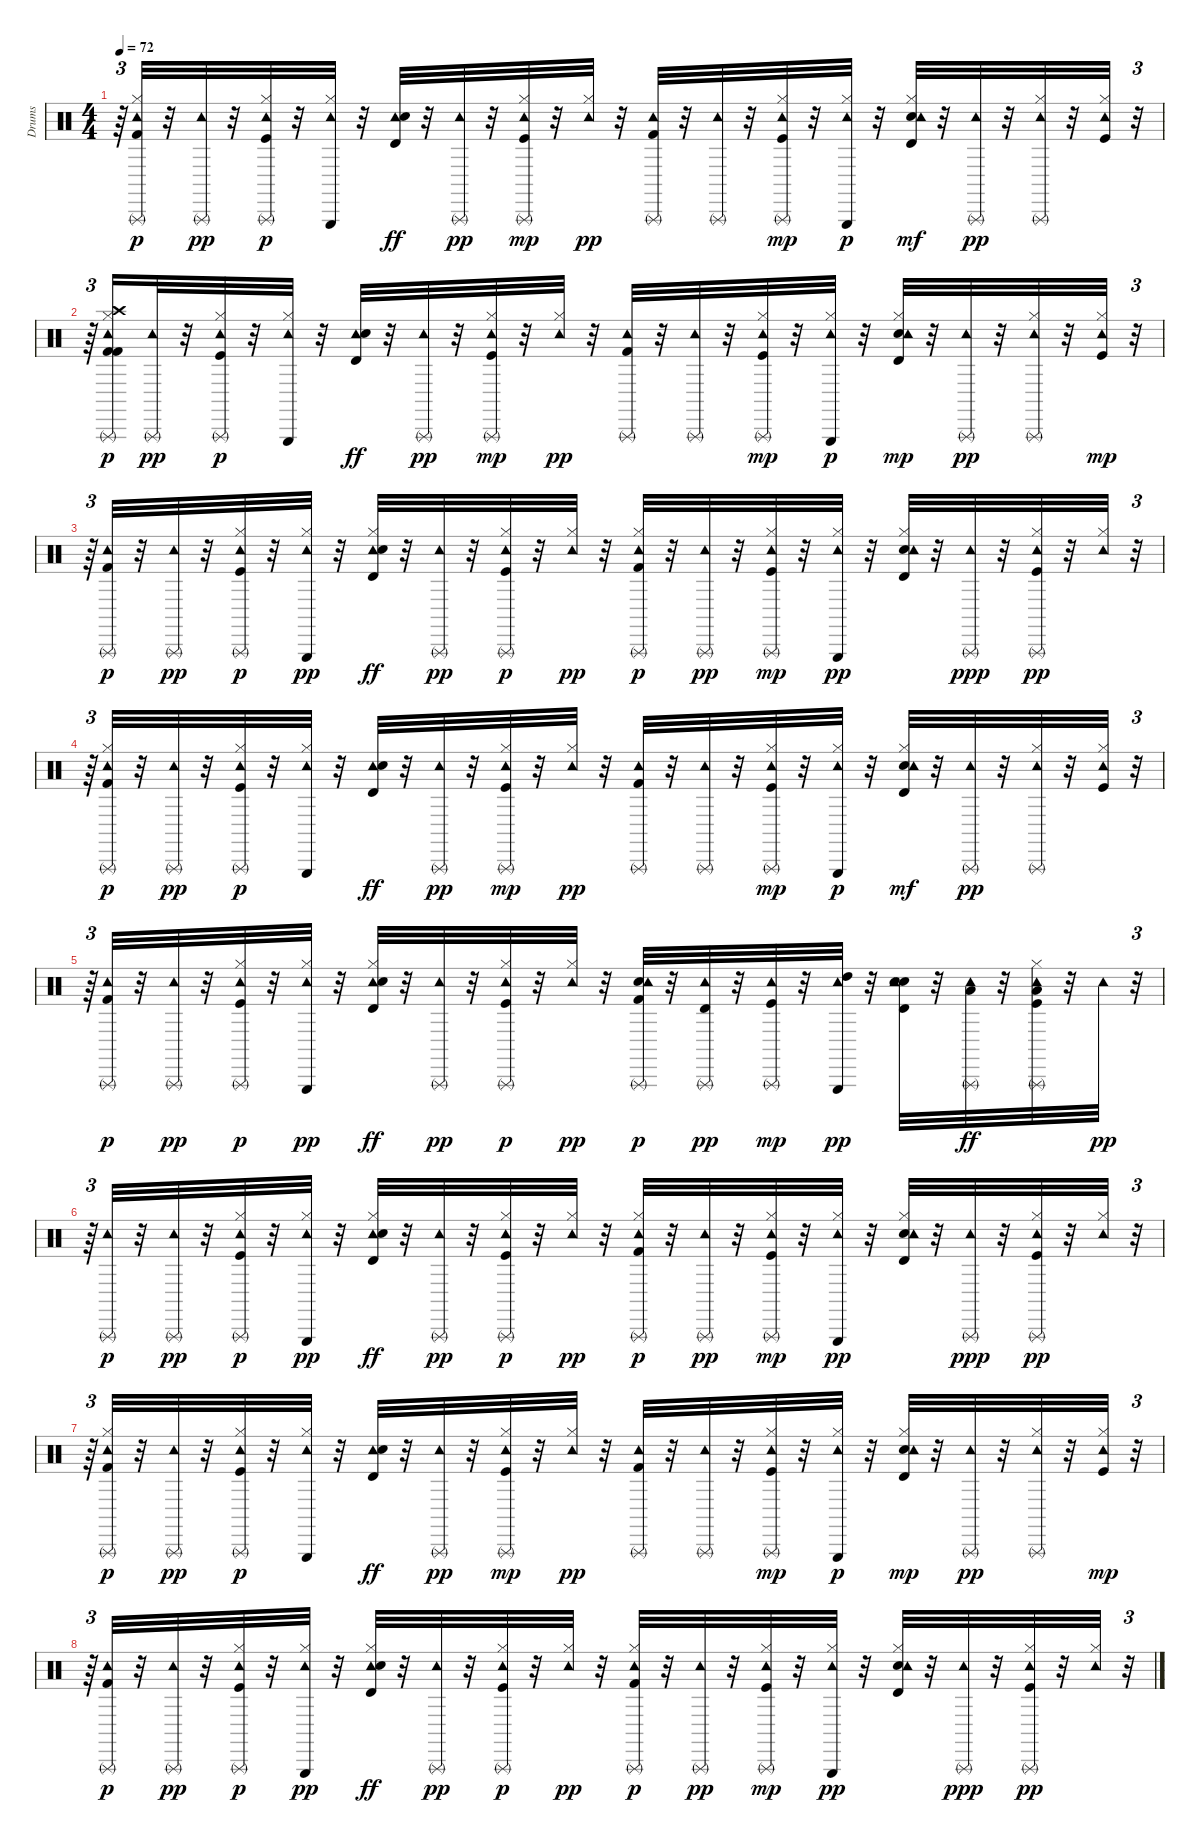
\track ("Drums" "Drums") {instrument percussion}
\staff {score}
\articulation defaults
\ts (4 4)
\tempo 72
\clef neutral
\ks c
r.64{tu (3 2) dy pp} ("Hi-Hat (closed)" "Tambourine (hit)" "Triangle (rnute)" "Kick (hit) 2").32{dy p} r.32 ("Triangle (rnute)" "Tambourine (hit)").32{dy pp} r.32 ("Kick (hit)" "Hi-Hat (closed)" "Tambourine (hit)" "Triangle (rnute)").32{dy p} r.32 ("Hi-Hat (closed)" "Tambourine (hit)" "Triangle (hit)").32 r.32 ("Tambourine (hit)" "Electric Snare (hit)" "Timbale high (hit)").32{dy ff} r.32 ("Triangle (rnute)" "Tambourine (hit)").32{dy pp} r.32 ("Kick (hit)" "Hi-Hat (closed)" "Tambourine (hit)" "Triangle (rnute)").32{dy mp} r.32 ("Hi-Hat (closed)" "Tambourine (hit)").32{dy pp} r.32 ("Tambourine (hit)" "Kick (hit) 2" "Triangle (rnute)").32 r.32 ("Triangle (rnute)" "Tambourine (hit)").32 r.32 ("Hi-Hat (closed)" "Triangle (rnute)" "Tambourine (hit)" "Kick (hit)").32{dy mp} r.32 ("Hi-Hat (closed)" "Tambourine (hit)" "Triangle (hit)").32{dy p} r.32 ("Timbale high (hit)" "Electric Snare (hit)" "Tambourine (hit)" "Hi-Hat (closed)").32{dy mf} r.32 ("Tambourine (hit)" "Triangle (rnute)").32{dy pp} r.32 ("Tambourine (hit)" "Hi-Hat (closed)" "Triangle (rnute)").32 r.32 ("Kick (hit)" "Tambourine (hit)" "Hi-Hat (closed)").32 r.32{tu (3 2)} |
r.64{tu (3 2)} ("Kick (hit) 2" "Hi-Hat (closed)" "Crash high (hit)" "Tambourine (hit)" "Triangle (rnute)" "Kick (hit) 2").16{dy p} ("Triangle (rnute)" "Tambourine (hit)").32{dy pp} r.32 ("Kick (hit)" "Hi-Hat (closed)" "Tambourine (hit)" "Triangle (rnute)").32{dy p} r.32 ("Hi-Hat (closed)" "Tambourine (hit)" "Triangle (hit)").32 r.32 ("Tambourine (hit)" "Electric Snare (hit)" "Timbale high (hit)").32{dy ff} r.32 ("Triangle (rnute)" "Tambourine (hit)").32{dy pp} r.32 ("Kick (hit)" "Hi-Hat (closed)" "Tambourine (hit)" "Triangle (rnute)").32{dy mp} r.32 ("Hi-Hat (closed)" "Tambourine (hit)").32{dy pp} r.32 ("Tambourine (hit)" "Kick (hit) 2" "Triangle (rnute)").32 r.32 ("Triangle (rnute)" "Tambourine (hit)").32 r.32 ("Hi-Hat (closed)" "Triangle (rnute)" "Tambourine (hit)" "Kick (hit)").32{dy mp} r.32 ("Hi-Hat (closed)" "Tambourine (hit)" "Triangle (hit)").32{dy p} r.32 ("Timbale high (hit)" "Electric Snare (hit)" "Tambourine (hit)" "Hi-Hat (closed)").32{dy mp} r.32 ("Tambourine (hit)" "Triangle (rnute)").32{dy pp} r.32 ("Tambourine (hit)" "Hi-Hat (closed)" "Triangle (rnute)").32 r.32 ("Kick (hit)" "Tambourine (hit)" "Hi-Hat (closed)").32{dy mp} r.32{tu (3 2)} |
r.64{tu (3 2)} ("Kick (hit) 2" "Tambourine (hit)" "Triangle (rnute)").32{dy p} r.32 ("Triangle (rnute)" "Tambourine (hit)").32{dy pp} r.32 ("Kick (hit)" "Hi-Hat (closed)" "Triangle (rnute)" "Tambourine (hit)").32{dy p} r.32 ("Hi-Hat (closed)" "Triangle (hit)" "Tambourine (hit)").32{dy pp} r.32 ("Hi-Hat (closed)" "Tambourine (hit)" "Electric Snare (hit)" "Timbale high (hit)").32{dy ff} r.32 ("Tambourine (hit)" "Triangle (rnute)").32{dy pp} r.32 ("Kick (hit)" "Hi-Hat (closed)" "Tambourine (hit)" "Triangle (rnute)").32{dy p} r.32 ("Hi-Hat (closed)" "Tambourine (hit)").32{dy pp} r.32 ("Hi-Hat (closed)" "Triangle (rnute)" "Tambourine (hit)" "Kick (hit) 2").32{dy p} r.32 ("Triangle (rnute)" "Tambourine (hit)").32{dy pp} r.32 ("Hi-Hat (closed)" "Triangle (rnute)" "Tambourine (hit)" "Kick (hit)").32{dy mp} r.32 ("Hi-Hat (closed)" "Triangle (hit)" "Tambourine (hit)").32{dy pp} r.32 ("Electric Snare (hit)" "Timbale high (hit)" "Hi-Hat (closed)" "Tambourine (hit)").32 r.32 ("Triangle (rnute)" "Tambourine (hit)").32{dy ppp} r.32 ("Kick (hit)" "Hi-Hat (closed)" "Triangle (rnute)" "Tambourine (hit)").32{dy pp} r.32 ("Hi-Hat (closed)" "Tambourine (hit)").32 r.32{tu (3 2)} |
r.64{tu (3 2)} ("Hi-Hat (closed)" "Tambourine (hit)" "Triangle (rnute)" "Kick (hit) 2").32{dy p} r.32 ("Triangle (rnute)" "Tambourine (hit)").32{dy pp} r.32 ("Kick (hit)" "Hi-Hat (closed)" "Tambourine (hit)" "Triangle (rnute)").32{dy p} r.32 ("Hi-Hat (closed)" "Tambourine (hit)" "Triangle (hit)").32 r.32 ("Tambourine (hit)" "Electric Snare (hit)" "Timbale high (hit)").32{dy ff} r.32 ("Triangle (rnute)" "Tambourine (hit)").32{dy pp} r.32 ("Kick (hit)" "Hi-Hat (closed)" "Tambourine (hit)" "Triangle (rnute)").32{dy mp} r.32 ("Hi-Hat (closed)" "Tambourine (hit)").32{dy pp} r.32 ("Tambourine (hit)" "Kick (hit) 2" "Triangle (rnute)").32 r.32 ("Triangle (rnute)" "Tambourine (hit)").32 r.32 ("Hi-Hat (closed)" "Triangle (rnute)" "Tambourine (hit)" "Kick (hit)").32{dy mp} r.32 ("Hi-Hat (closed)" "Tambourine (hit)" "Triangle (hit)").32{dy p} r.32 ("Timbale high (hit)" "Electric Snare (hit)" "Tambourine (hit)" "Hi-Hat (closed)").32{dy mf} r.32 ("Tambourine (hit)" "Triangle (rnute)").32{dy pp} r.32 ("Tambourine (hit)" "Hi-Hat (closed)" "Triangle (rnute)").32 r.32 ("Kick (hit)" "Tambourine (hit)" "Hi-Hat (closed)").32 r.32{tu (3 2)} |
r.64{tu (3 2)} ("Kick (hit) 2" "Tambourine (hit)" "Triangle (rnute)").32{dy p} r.32 ("Triangle (rnute)" "Tambourine (hit)").32{dy pp} r.32 ("Kick (hit)" "Hi-Hat (closed)" "Triangle (rnute)" "Tambourine (hit)").32{dy p} r.32 ("Hi-Hat (closed)" "Triangle (hit)" "Tambourine (hit)").32{dy pp} r.32 ("Hi-Hat (closed)" "Tambourine (hit)" "Electric Snare (hit)" "Timbale high (hit)").32{dy ff} r.32 ("Tambourine (hit)" "Triangle (rnute)").32{dy pp} r.32 ("Kick (hit)" "Hi-Hat (closed)" "Tambourine (hit)" "Triangle (rnute)").32{dy p} r.32 ("Hi-Hat (closed)" "Tambourine (hit)").32{dy pp} r.32 ("Snare (hit) 2" "Triangle (rnute)" "Tambourine (hit)" "Kick (hit) 2").32{dy p} r.32 ("Triangle (rnute)" "Tambourine (hit)" "Timbale high (hit)").32{dy pp} r.32 ("Triangle (rnute)" "Tambourine (hit)" "Kick (hit)").32{dy mp} r.32 ("High Tom (hit)" "Triangle (hit)" "Tambourine (hit)").32{dy pp} r.32 ("Snare (hit) 2" "Electric Snare (hit)" "Timbale high (hit)" "Tambourine (hit)").32 r.32 ("Triangle (rnute)" "Tambourine (hit)" "Low Tom (hit)").32{dy ff} r.32 ("Kick (hit)" "Hi-Hat (closed)" "Triangle (rnute)" "Tambourine (hit)" "Low Tom (hit)").32 r.32 "Tambourine (hit)".32{dy pp} r.32{tu (3 2)} |
r.64{tu (3 2)} ("Tambourine (hit)" "Triangle (rnute)").32{dy p} r.32 ("Triangle (rnute)" "Tambourine (hit)").32{dy pp} r.32 ("Kick (hit)" "Hi-Hat (closed)" "Triangle (rnute)" "Tambourine (hit)").32{dy p} r.32 ("Hi-Hat (closed)" "Triangle (hit)" "Tambourine (hit)").32{dy pp} r.32 ("Hi-Hat (closed)" "Tambourine (hit)" "Electric Snare (hit)" "Timbale high (hit)").32{dy ff} r.32 ("Tambourine (hit)" "Triangle (rnute)").32{dy pp} r.32 ("Kick (hit)" "Hi-Hat (closed)" "Tambourine (hit)" "Triangle (rnute)").32{dy p} r.32 ("Hi-Hat (closed)" "Tambourine (hit)").32{dy pp} r.32 ("Hi-Hat (closed)" "Triangle (rnute)" "Tambourine (hit)" "Kick (hit) 2").32{dy p} r.32 ("Triangle (rnute)" "Tambourine (hit)").32{dy pp} r.32 ("Hi-Hat (closed)" "Triangle (rnute)" "Tambourine (hit)" "Kick (hit)").32{dy mp} r.32 ("Hi-Hat (closed)" "Triangle (hit)" "Tambourine (hit)").32{dy pp} r.32 ("Electric Snare (hit)" "Timbale high (hit)" "Hi-Hat (closed)" "Tambourine (hit)").32 r.32 ("Triangle (rnute)" "Tambourine (hit)").32{dy ppp} r.32 ("Kick (hit)" "Hi-Hat (closed)" "Triangle (rnute)" "Tambourine (hit)").32{dy pp} r.32 ("Hi-Hat (closed)" "Tambourine (hit)").32 r.32{tu (3 2)} |
r.64{tu (3 2)} ("Hi-Hat (closed)" "Tambourine (hit)" "Triangle (rnute)" "Kick (hit) 2").32{dy p} r.32 ("Triangle (rnute)" "Tambourine (hit)").32{dy pp} r.32 ("Kick (hit)" "Hi-Hat (closed)" "Tambourine (hit)" "Triangle (rnute)").32{dy p} r.32 ("Hi-Hat (closed)" "Tambourine (hit)" "Triangle (hit)").32 r.32 ("Tambourine (hit)" "Electric Snare (hit)" "Timbale high (hit)").32{dy ff} r.32 ("Triangle (rnute)" "Tambourine (hit)").32{dy pp} r.32 ("Kick (hit)" "Hi-Hat (closed)" "Tambourine (hit)" "Triangle (rnute)").32{dy mp} r.32 ("Hi-Hat (closed)" "Tambourine (hit)").32{dy pp} r.32 ("Tambourine (hit)" "Kick (hit) 2" "Triangle (rnute)").32 r.32 ("Triangle (rnute)" "Tambourine (hit)").32 r.32 ("Hi-Hat (closed)" "Triangle (rnute)" "Tambourine (hit)" "Kick (hit)").32{dy mp} r.32 ("Hi-Hat (closed)" "Tambourine (hit)" "Triangle (hit)").32{dy p} r.32 ("Timbale high (hit)" "Electric Snare (hit)" "Tambourine (hit)" "Hi-Hat (closed)").32{dy mp} r.32 ("Tambourine (hit)" "Triangle (rnute)").32{dy pp} r.32 ("Tambourine (hit)" "Hi-Hat (closed)" "Triangle (rnute)").32 r.32 ("Kick (hit)" "Tambourine (hit)" "Hi-Hat (closed)").32{dy mp} r.32{tu (3 2)} |
r.64{tu (3 2)} ("Kick (hit) 2" "Tambourine (hit)" "Triangle (rnute)").32{dy p} r.32 ("Triangle (rnute)" "Tambourine (hit)").32{dy pp} r.32 ("Kick (hit)" "Hi-Hat (closed)" "Triangle (rnute)" "Tambourine (hit)").32{dy p} r.32 ("Hi-Hat (closed)" "Triangle (hit)" "Tambourine (hit)").32{dy pp} r.32 ("Hi-Hat (closed)" "Tambourine (hit)" "Electric Snare (hit)" "Timbale high (hit)").32{dy ff} r.32 ("Tambourine (hit)" "Triangle (rnute)").32{dy pp} r.32 ("Kick (hit)" "Hi-Hat (closed)" "Tambourine (hit)" "Triangle (rnute)").32{dy p} r.32 ("Hi-Hat (closed)" "Tambourine (hit)").32{dy pp} r.32 ("Hi-Hat (closed)" "Triangle (rnute)" "Tambourine (hit)" "Kick (hit) 2").32{dy p} r.32 ("Triangle (rnute)" "Tambourine (hit)").32{dy pp} r.32 ("Hi-Hat (closed)" "Triangle (rnute)" "Tambourine (hit)" "Kick (hit)").32{dy mp} r.32 ("Hi-Hat (closed)" "Triangle (hit)" "Tambourine (hit)").32{dy pp} r.32 ("Electric Snare (hit)" "Timbale high (hit)" "Hi-Hat (closed)" "Tambourine (hit)").32 r.32 ("Triangle (rnute)" "Tambourine (hit)").32{dy ppp} r.32 ("Kick (hit)" "Hi-Hat (closed)" "Triangle (rnute)" "Tambourine (hit)").32{dy pp} r.32 ("Hi-Hat (closed)" "Tambourine (hit)").32 r.32{tu (3 2)}
